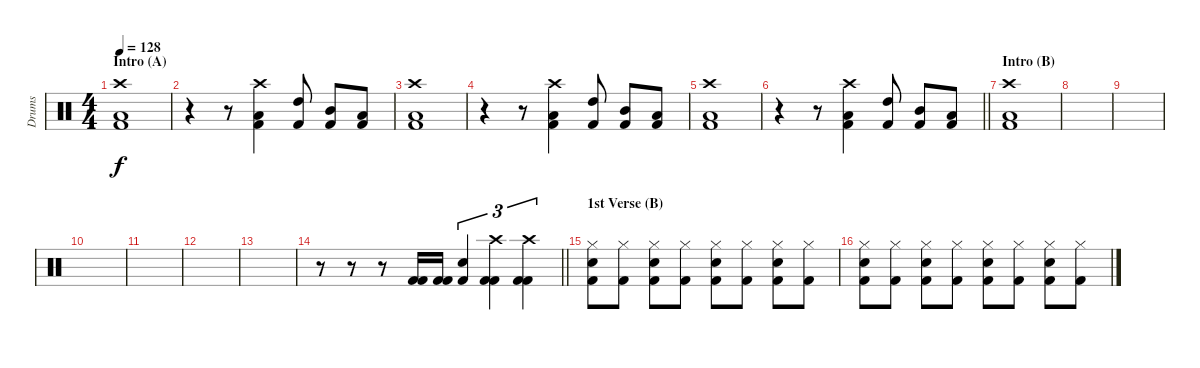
\track ("Drums" "Drums") {instrument percussion}
\staff {score}
\articulation defaults
\ts (4 4)
\section ("" "Intro (A)")
\tempo 128
\clef neutral
\ks c
("Low Tom (hit)" "Kick (hit) 2" "Crash high (hit)").1{dy f} |
r.4 r.8 ("Low Tom (hit)" "Kick (hit) 2" "Crash high (hit)").4 ("Kick (hit) 2" "High Tom (hit)").8 ("Kick (hit) 2" "Mid Tom (hit)").8 ("Kick (hit) 2" "Low Tom (hit)").8 |
("Low Tom (hit)" "Kick (hit) 2" "Crash high (hit)").1 |
r.4 r.8 ("Low Tom (hit)" "Kick (hit) 2" "Crash high (hit)").4 ("Kick (hit) 2" "High Tom (hit)").8 ("Kick (hit) 2" "Mid Tom (hit)").8 ("Kick (hit) 2" "Low Tom (hit)").8 |
("Low Tom (hit)" "Kick (hit) 2" "Crash high (hit)").1 |
\barLineRight lightlight
r.4 r.8 ("Low Tom (hit)" "Kick (hit) 2" "Crash high (hit)").4 ("Kick (hit) 2" "High Tom (hit)").8 ("Kick (hit) 2" "Mid Tom (hit)").8 ("Kick (hit) 2" "Low Tom (hit)").8 |
\section ("" "Intro (B)")
("Low Tom (hit)" "Kick (hit) 2" "Crash high (hit)").1 |
|
|
|
|
|
|
\barLineRight lightlight
r.8 r.8 r.8 ("Kick (hit) 2" "Kick (hit) 2").16 ("Kick (hit) 2" "Kick (hit) 2").16 ("Snare (hit) 2" "Kick (hit) 2").4{tu (3 2)} ("Crash high (hit)" "Kick (hit) 2" "Kick (hit) 2").4{tu (3 2)} ("Crash high (hit)" "Kick (hit) 2" "Kick (hit) 2").4{tu (3 2)} |
\section ("" "1st Verse (B)")
("Hi-Hat (closed)" "Kick (hit) 2" "Snare (hit) 2").8 ("Hi-Hat (closed)" "Kick (hit) 2").8 ("Hi-Hat (closed)" "Kick (hit) 2" "Snare (hit) 2").8 ("Hi-Hat (closed)" "Kick (hit) 2").8 ("Hi-Hat (closed)" "Kick (hit) 2" "Snare (hit) 2").8 ("Hi-Hat (closed)" "Kick (hit) 2").8 ("Hi-Hat (closed)" "Kick (hit) 2" "Snare (hit) 2").8 ("Hi-Hat (closed)" "Kick (hit) 2").8 |
("Hi-Hat (closed)" "Kick (hit) 2" "Snare (hit) 2").8 ("Hi-Hat (closed)" "Kick (hit) 2").8 ("Hi-Hat (closed)" "Kick (hit) 2" "Snare (hit) 2").8 ("Hi-Hat (closed)" "Kick (hit) 2").8 ("Hi-Hat (closed)" "Kick (hit) 2" "Snare (hit) 2").8 ("Hi-Hat (closed)" "Kick (hit) 2").8 ("Hi-Hat (closed)" "Kick (hit) 2" "Snare (hit) 2").8 ("Hi-Hat (closed)" "Kick (hit) 2").8
